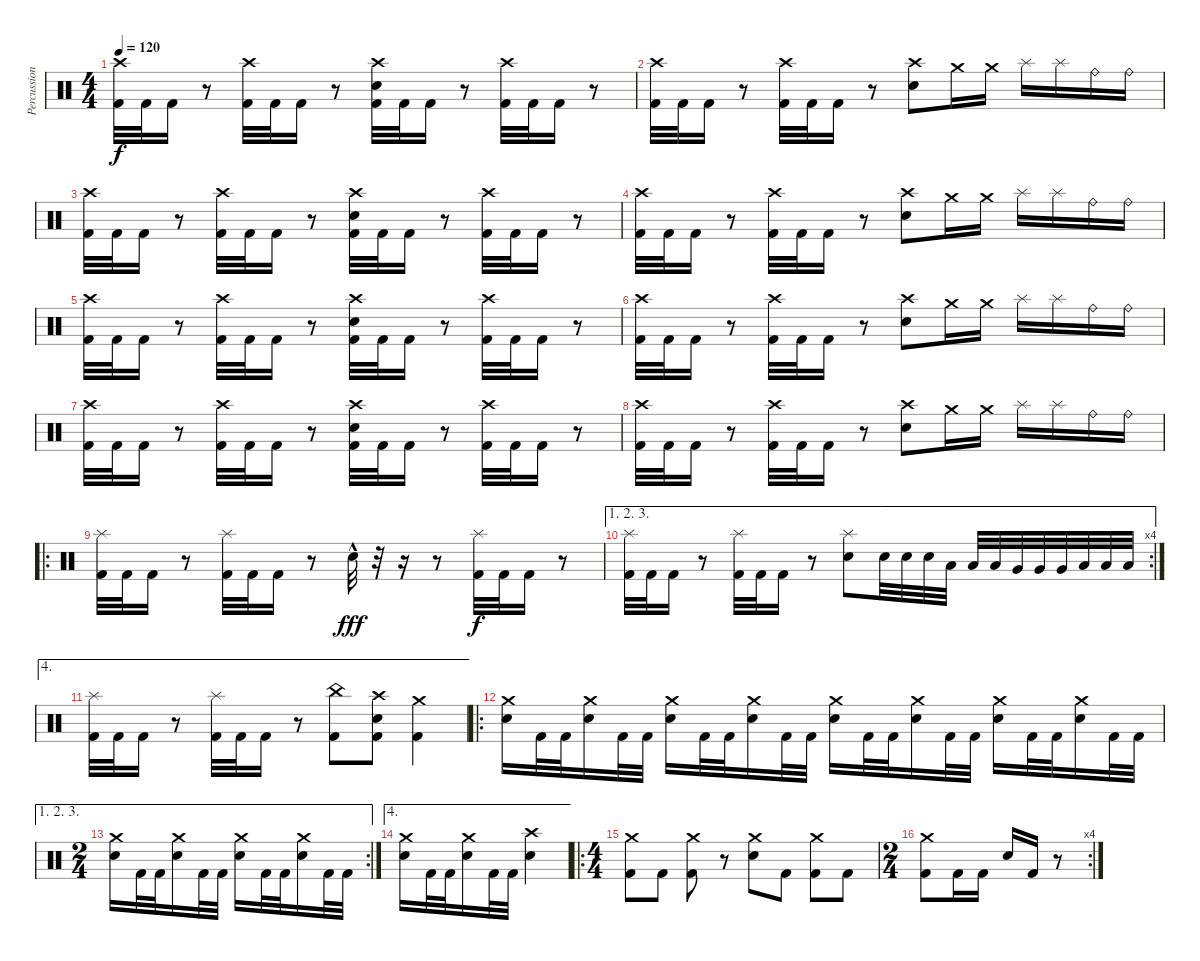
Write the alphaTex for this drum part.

\track ("Percussion" "Percussion") {instrument percussion}
\staff {score}
\articulation defaults
\ts (4 4)
\tempo 120
\clef neutral
\ks c
("Crash high (hit)" "Kick (hit) 2").32{dy f} "Kick (hit) 2".32 "Kick (hit) 2".16 r.8 ("Crash high (hit)" "Kick (hit) 2").32 "Kick (hit) 2".32 "Kick (hit) 2".16 r.8 ("Crash high (hit)" "Electric Snare (hit)" "Kick (hit) 2").32 "Kick (hit) 2".32 "Kick (hit) 2".16 r.8 ("Crash high (hit)" "Kick (hit) 2").32 "Kick (hit) 2".32 "Kick (hit) 2".16 r.8 |
("Crash high (hit)" "Kick (hit) 2").32 "Kick (hit) 2".32 "Kick (hit) 2".16 r.8 ("Crash high (hit)" "Kick (hit) 2").32 "Kick (hit) 2".32 "Kick (hit) 2".16 r.8 ("Crash high (hit)" "Electric Snare (hit)").8 "Crash medium (hit)".16 "Crash medium (hit)".16 "Splash (hit)".16 "Splash (hit)".16 "Ride (bell)".16 "Ride (bell)".16 |
("Crash high (hit)" "Kick (hit) 2").32 "Kick (hit) 2".32 "Kick (hit) 2".16 r.8 ("Crash high (hit)" "Kick (hit) 2").32 "Kick (hit) 2".32 "Kick (hit) 2".16 r.8 ("Crash high (hit)" "Electric Snare (hit)" "Kick (hit) 2").32 "Kick (hit) 2".32 "Kick (hit) 2".16 r.8 ("Crash high (hit)" "Kick (hit) 2").32 "Kick (hit) 2".32 "Kick (hit) 2".16 r.8 |
("Crash high (hit)" "Kick (hit) 2").32 "Kick (hit) 2".32 "Kick (hit) 2".16 r.8 ("Crash high (hit)" "Kick (hit) 2").32 "Kick (hit) 2".32 "Kick (hit) 2".16 r.8 ("Crash high (hit)" "Electric Snare (hit)").8 "Crash medium (hit)".16 "Crash medium (hit)".16 "Splash (hit)".16 "Splash (hit)".16 "Ride (bell)".16 "Ride (bell)".16 |
("Crash high (hit)" "Kick (hit) 2").32 "Kick (hit) 2".32 "Kick (hit) 2".16 r.8 ("Crash high (hit)" "Kick (hit) 2").32 "Kick (hit) 2".32 "Kick (hit) 2".16 r.8 ("Crash high (hit)" "Electric Snare (hit)" "Kick (hit) 2").32 "Kick (hit) 2".32 "Kick (hit) 2".16 r.8 ("Crash high (hit)" "Kick (hit) 2").32 "Kick (hit) 2".32 "Kick (hit) 2".16 r.8 |
("Crash high (hit)" "Kick (hit) 2").32 "Kick (hit) 2".32 "Kick (hit) 2".16 r.8 ("Crash high (hit)" "Kick (hit) 2").32 "Kick (hit) 2".32 "Kick (hit) 2".16 r.8 ("Crash high (hit)" "Electric Snare (hit)").8 "Crash medium (hit)".16 "Crash medium (hit)".16 "Splash (hit)".16 "Splash (hit)".16 "Ride (bell)".16 "Ride (bell)".16 |
("Crash high (hit)" "Kick (hit) 2").32 "Kick (hit) 2".32 "Kick (hit) 2".16 r.8 ("Crash high (hit)" "Kick (hit) 2").32 "Kick (hit) 2".32 "Kick (hit) 2".16 r.8 ("Crash high (hit)" "Electric Snare (hit)" "Kick (hit) 2").32 "Kick (hit) 2".32 "Kick (hit) 2".16 r.8 ("Crash high (hit)" "Kick (hit) 2").32 "Kick (hit) 2".32 "Kick (hit) 2".16 r.8 |
("Crash high (hit)" "Kick (hit) 2").32 "Kick (hit) 2".32 "Kick (hit) 2".16 r.8 ("Crash high (hit)" "Kick (hit) 2").32 "Kick (hit) 2".32 "Kick (hit) 2".16 r.8 ("Crash high (hit)" "Electric Snare (hit)").8 "Crash medium (hit)".16 "Crash medium (hit)".16 "Splash (hit)".16 "Splash (hit)".16 "Ride (bell)".16 "Ride (bell)".16 |
\ro
("Splash (hit)" "Kick (hit) 2").32 "Kick (hit) 2".32 "Kick (hit) 2".16 r.8 ("Splash (hit)" "Kick (hit) 2").32 "Kick (hit) 2".32 "Kick (hit) 2".16 r.8 "Electric Snare (hit)"{hac}.32{dy fff balance 16} r.32 r.16 r.8 ("Splash (hit)" "Kick (hit) 2").32{dy f} "Kick (hit) 2".32 "Kick (hit) 2".16 r.8 |
\ae (1 2 3)
\rc 4
("Splash (hit)" "Kick (hit) 2").32 "Kick (hit) 2".32 "Kick (hit) 2".16 r.8 ("Splash (hit)" "Kick (hit) 2").32 "Kick (hit) 2".32 "Kick (hit) 2".16 r.8 ("Splash (hit)" "Electric Snare (hit)").8 "Electric Snare (hit)".32 "Electric Snare (hit)".32 "Electric Snare (hit)".32 "Low Tom (hit)".32 "Low Tom (hit)".32 "Low Tom (hit)".32 "Very Low Tom (hit)".32 "Very Low Tom (hit)".32 "Very Low Tom (hit)".32 "Low Floor Tom (hit)".32 "Low Floor Tom (hit)".32 "Low Floor Tom (hit)".32 |
\ae 4
("Splash (hit)" "Kick (hit) 2").32 "Kick (hit) 2".32 "Kick (hit) 2".16 r.8 ("Splash (hit)" "Kick (hit) 2").32 "Kick (hit) 2".32 "Kick (hit) 2".16 r.8 ("China (hit)" "Kick (hit) 2").8 ("Crash high (hit)" "Electric Snare (hit)" "Kick (hit) 2").8 ("Crash medium (hit)" "Kick (hit) 2").4 |
\ro
("Crash medium (hit)" "Electric Snare (hit)").16 "Kick (hit) 2".32 "Kick (hit) 2".32 ("Crash medium (hit)" "Electric Snare (hit)").16 "Kick (hit) 2".32 "Kick (hit) 2".32 ("Crash medium (hit)" "Electric Snare (hit)").16 "Kick (hit) 2".32 "Kick (hit) 2".32 ("Crash medium (hit)" "Electric Snare (hit)").16 "Kick (hit) 2".32 "Kick (hit) 2".32 ("Crash medium (hit)" "Electric Snare (hit)").16 "Kick (hit) 2".32 "Kick (hit) 2".32 ("Crash medium (hit)" "Electric Snare (hit)").16 "Kick (hit) 2".32 "Kick (hit) 2".32 ("Crash medium (hit)" "Electric Snare (hit)").16 "Kick (hit) 2".32 "Kick (hit) 2".32 ("Crash medium (hit)" "Electric Snare (hit)").16 "Kick (hit) 2".32 "Kick (hit) 2".32 |
\ae (1 2 3)
\rc 2
\ts (2 4)
("Crash medium (hit)" "Electric Snare (hit)").16 "Kick (hit) 2".32 "Kick (hit) 2".32 ("Crash medium (hit)" "Electric Snare (hit)").16 "Kick (hit) 2".32 "Kick (hit) 2".32 ("Crash medium (hit)" "Electric Snare (hit)").16 "Kick (hit) 2".32 "Kick (hit) 2".32 ("Crash medium (hit)" "Electric Snare (hit)").16 "Kick (hit) 2".32 "Kick (hit) 2".32 |
\ae 4
("Crash medium (hit)" "Electric Snare (hit)").16 "Kick (hit) 2".32 "Kick (hit) 2".32 ("Crash medium (hit)" "Electric Snare (hit)").16 "Kick (hit) 2".32 "Kick (hit) 2".32 ("Crash high (hit)" "Electric Snare (hit)").4 |
\ro
\ts (4 4)
("Crash medium (hit)" "Kick (hit) 2").8 "Kick (hit) 2".8 ("Crash medium (hit)" "Kick (hit) 2").8 r.8 ("Crash medium (hit)" "Electric Snare (hit)").8 "Kick (hit) 2".8 ("Crash medium (hit)" "Kick (hit) 2").8 "Kick (hit) 2".8 |
\rc 4
\ts (2 4)
("Crash medium (hit)" "Kick (hit) 2").8 "Kick (hit) 2".16 "Kick (hit) 2".16 "Electric Snare (hit)".16 "Kick (hit) 2".16 r.8
